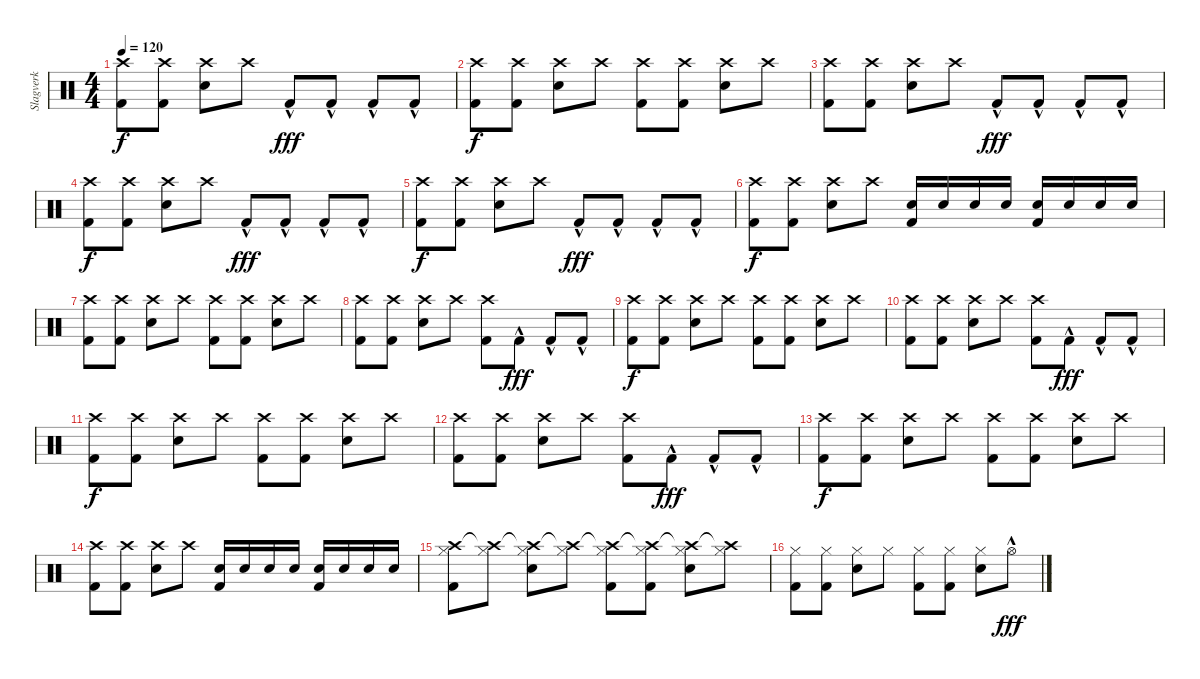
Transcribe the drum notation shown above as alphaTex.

\track ("Slagverk" "Slagverk") {instrument percussion}
\staff {score}
\articulation defaults
\ts (4 4)
\tempo 120
\clef neutral
\ks c
("Crash high (hit)" "Kick (hit) 2").8{dy f} ("Crash high (hit)" "Kick (hit) 2").8 ("Crash high (hit)" "Snare (hit) 2").8 "Crash high (hit)".8 "Kick (hit) 2"{hac}.8{dy fff} "Kick (hit) 2"{hac}.8 "Kick (hit) 2"{hac}.8 "Kick (hit) 2"{hac}.8 |
("Crash high (hit)" "Kick (hit) 2").8{dy f} ("Crash high (hit)" "Kick (hit) 2").8 ("Crash high (hit)" "Snare (hit) 2").8 "Crash high (hit)".8 ("Crash high (hit)" "Kick (hit) 2").8 ("Crash high (hit)" "Kick (hit) 2").8 ("Crash high (hit)" "Snare (hit) 2").8 "Crash high (hit)".8 |
("Crash high (hit)" "Kick (hit) 2").8 ("Crash high (hit)" "Kick (hit) 2").8 ("Crash high (hit)" "Snare (hit) 2").8 "Crash high (hit)".8 "Kick (hit) 2"{hac}.8{dy fff} "Kick (hit) 2"{hac}.8 "Kick (hit) 2"{hac}.8 "Kick (hit) 2"{hac}.8 |
("Crash high (hit)" "Kick (hit) 2").8{dy f} ("Crash high (hit)" "Kick (hit) 2").8 ("Crash high (hit)" "Snare (hit) 2").8 "Crash high (hit)".8 "Kick (hit) 2"{hac}.8{dy fff} "Kick (hit) 2"{hac}.8 "Kick (hit) 2"{hac}.8 "Kick (hit) 2"{hac}.8 |
("Crash high (hit)" "Kick (hit) 2").8{dy f} ("Crash high (hit)" "Kick (hit) 2").8 ("Crash high (hit)" "Snare (hit) 2").8 "Crash high (hit)".8 "Kick (hit) 2"{hac}.8{dy fff} "Kick (hit) 2"{hac}.8 "Kick (hit) 2"{hac}.8 "Kick (hit) 2"{hac}.8 |
("Crash high (hit)" "Kick (hit) 2").8{dy f} ("Crash high (hit)" "Kick (hit) 2").8 ("Crash high (hit)" "Snare (hit) 2").8 "Crash high (hit)".8 ("Snare (hit) 2" "Kick (hit) 2").16 "Snare (hit) 2".16 "Snare (hit) 2".16 "Snare (hit) 2".16 ("Snare (hit) 2" "Kick (hit) 2").16 "Snare (hit) 2".16 "Snare (hit) 2".16 "Snare (hit) 2".16 |
("Crash high (hit)" "Kick (hit) 2").8 ("Crash high (hit)" "Kick (hit) 2").8 ("Crash high (hit)" "Snare (hit) 2").8 "Crash high (hit)".8 ("Crash high (hit)" "Kick (hit) 2").8 ("Crash high (hit)" "Kick (hit) 2").8 ("Crash high (hit)" "Snare (hit) 2").8 "Crash high (hit)".8 |
("Crash high (hit)" "Kick (hit) 2").8 ("Crash high (hit)" "Kick (hit) 2").8 ("Crash high (hit)" "Snare (hit) 2").8 "Crash high (hit)".8 ("Crash high (hit)" "Kick (hit) 2").8 "Kick (hit) 2"{hac}.8{dy fff} "Kick (hit) 2"{hac}.8 "Kick (hit) 2"{hac}.8 |
("Crash high (hit)" "Kick (hit) 2").8{dy f} ("Crash high (hit)" "Kick (hit) 2").8 ("Crash high (hit)" "Snare (hit) 2").8 "Crash high (hit)".8 ("Crash high (hit)" "Kick (hit) 2").8 ("Crash high (hit)" "Kick (hit) 2").8 ("Crash high (hit)" "Snare (hit) 2").8 "Crash high (hit)".8 |
("Crash high (hit)" "Kick (hit) 2").8 ("Crash high (hit)" "Kick (hit) 2").8 ("Crash high (hit)" "Snare (hit) 2").8 "Crash high (hit)".8 ("Crash high (hit)" "Kick (hit) 2").8 "Kick (hit) 2"{hac}.8{dy fff} "Kick (hit) 2"{hac}.8 "Kick (hit) 2"{hac}.8 |
("Crash high (hit)" "Kick (hit) 2").8{dy f} ("Crash high (hit)" "Kick (hit) 2").8 ("Crash high (hit)" "Snare (hit) 2").8 "Crash high (hit)".8 ("Crash high (hit)" "Kick (hit) 2").8 ("Crash high (hit)" "Kick (hit) 2").8 ("Crash high (hit)" "Snare (hit) 2").8 "Crash high (hit)".8 |
("Crash high (hit)" "Kick (hit) 2").8 ("Crash high (hit)" "Kick (hit) 2").8 ("Crash high (hit)" "Snare (hit) 2").8 "Crash high (hit)".8 ("Crash high (hit)" "Kick (hit) 2").8 "Kick (hit) 2"{hac}.8{dy fff} "Kick (hit) 2"{hac}.8 "Kick (hit) 2"{hac}.8 |
("Crash high (hit)" "Kick (hit) 2").8{dy f} ("Crash high (hit)" "Kick (hit) 2").8 ("Crash high (hit)" "Snare (hit) 2").8 "Crash high (hit)".8 ("Crash high (hit)" "Kick (hit) 2").8 ("Crash high (hit)" "Kick (hit) 2").8 ("Crash high (hit)" "Snare (hit) 2").8 "Crash high (hit)".8 |
("Crash high (hit)" "Kick (hit) 2").8 ("Crash high (hit)" "Kick (hit) 2").8 ("Crash high (hit)" "Snare (hit) 2").8 "Crash high (hit)".8 ("Snare (hit) 2" "Kick (hit) 2").16 "Snare (hit) 2".16 "Snare (hit) 2".16 "Snare (hit) 2".16 ("Snare (hit) 2" "Kick (hit) 2").16 "Snare (hit) 2".16 "Snare (hit) 2".16 "Snare (hit) 2".16 |
("Crash high (hit)" "Hi-Hat (closed)" "Kick (hit) 2").8 ("Crash high (hit)"{t} "Hi-Hat (closed)").8 ("Crash high (hit)"{t} "Hi-Hat (closed)" "Snare (hit) 2").8 ("Crash high (hit)"{t} "Hi-Hat (closed)").8 ("Crash high (hit)"{t} "Hi-Hat (closed)" "Kick (hit) 2").8 ("Crash high (hit)"{t} "Hi-Hat (closed)" "Kick (hit) 2").8 ("Crash high (hit)"{t} "Hi-Hat (closed)" "Snare (hit) 2").8 ("Crash high (hit)"{t} "Hi-Hat (closed)").8 |
("Hi-Hat (closed)" "Kick (hit) 2").8 ("Hi-Hat (closed)" "Kick (hit) 2").8 ("Hi-Hat (closed)" "Snare (hit) 2").8 "Hi-Hat (closed)".8 ("Hi-Hat (closed)" "Kick (hit) 2").8 ("Hi-Hat (closed)" "Kick (hit) 2").8 ("Hi-Hat (closed)" "Snare (hit) 2").8 "Hi-Hat (open)"{hac}.8{dy fff}
